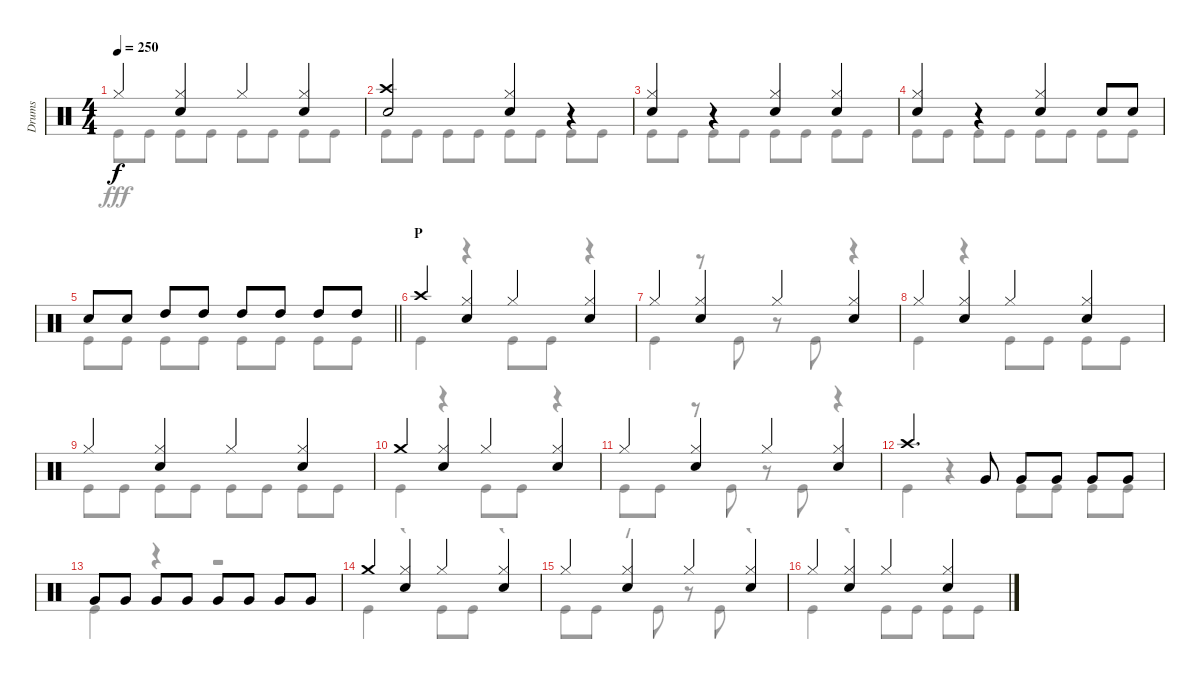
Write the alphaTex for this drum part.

\track ("Drums" "Drums") {instrument percussion}
\staff {score}
\articulation defaults
\voice
\ts (4 4)
\tempo 250
\clef neutral
\ks c "Hi-Hat (closed)".4{dy f}
("Hi-Hat (closed)" "Snare (hit) 2").4 "Hi-Hat (closed)".4 ("Hi-Hat (closed)" "Snare (hit) 2").4 |
("Crash high (hit)" "Snare (hit) 2").2 ("Hi-Hat (closed)" "Snare (hit) 2").4 r.4 |
("Hi-Hat (closed)" "Snare (hit) 2").4 r.4 ("Hi-Hat (closed)" "Snare (hit) 2").4 ("Hi-Hat (closed)" "Snare (hit) 2").4 |
("Hi-Hat (closed)" "Snare (hit) 2").4 r.4 ("Hi-Hat (closed)" "Snare (hit) 2").4 "Snare (hit) 2".8 "Snare (hit) 2".8 |
\barLineRight lightlight "Snare (hit) 2".8 "Snare (hit) 2".8 "High Tom (hit)".8 "High Tom (hit)".8 "High Tom (hit)".8 "High Tom (hit)".8 "High Tom (hit)".8 "High Tom (hit)".8
|
\section ("" "P")
"Crash high (hit)".4 ("Hi-Hat (closed)" "Snare (hit) 2").4 "Hi-Hat (closed)".4 ("Hi-Hat (closed)" "Snare (hit) 2").4 |
"Hi-Hat (closed)".4 ("Hi-Hat (closed)" "Snare (hit) 2").4 "Hi-Hat (closed)".4 ("Hi-Hat (closed)" "Snare (hit) 2").4 |
"Hi-Hat (closed)".4 ("Hi-Hat (closed)" "Snare (hit) 2").4 "Hi-Hat (closed)".4 ("Hi-Hat (closed)" "Snare (hit) 2").4 |
"Hi-Hat (closed)".4 ("Hi-Hat (closed)" "Snare (hit) 2").4 "Hi-Hat (closed)".4 ("Hi-Hat (closed)" "Snare (hit) 2").4 |
"Crash medium (hit)".4 ("Hi-Hat (closed)" "Snare (hit) 2").4 "Hi-Hat (closed)".4 ("Hi-Hat (closed)" "Snare (hit) 2").4 |
"Hi-Hat (closed)".4 ("Hi-Hat (closed)" "Snare (hit) 2").4 "Hi-Hat (closed)".4 ("Hi-Hat (closed)" "Snare (hit) 2").4 |
"Crash high (hit)".4{d} "Very Low Tom (hit)".8 "Very Low Tom (hit)".8 "Very Low Tom (hit)".8 "Very Low Tom (hit)".8 "Very Low Tom (hit)".8 |
"Very Low Tom (hit)".8 "Very Low Tom (hit)".8 "Very Low Tom (hit)".8 "Very Low Tom (hit)".8 "Very Low Tom (hit)".8 "Very Low Tom (hit)".8 "Very Low Tom (hit)".8 "Very Low Tom (hit)".8 |
"Crash medium (hit)".4 ("Hi-Hat (closed)" "Snare (hit) 2").4 "Hi-Hat (closed)".4 ("Hi-Hat (closed)" "Snare (hit) 2").4 |
"Hi-Hat (closed)".4 ("Hi-Hat (closed)" "Snare (hit) 2").4 "Hi-Hat (closed)".4 ("Hi-Hat (closed)" "Snare (hit) 2").4 |
"Hi-Hat (closed)".4 ("Hi-Hat (closed)" "Snare (hit) 2").4 "Hi-Hat (closed)".4 ("Hi-Hat (closed)" "Snare (hit) 2").4
\voice
\clef neutral
\ottava regular
\simile none
\ks c "Kick (hit)".8{dy fff} "Kick (hit)".8 "Kick (hit)".8 "Kick (hit)".8 "Kick (hit)".8 "Kick (hit)".8 "Kick (hit)".8 "Kick (hit)".8
|
"Kick (hit)".8 "Kick (hit)".8 "Kick (hit)".8 "Kick (hit)".8 "Kick (hit)".8 "Kick (hit)".8 "Kick (hit)".8 "Kick (hit)".8 |
"Kick (hit)".8 "Kick (hit)".8 "Kick (hit)".8 "Kick (hit)".8 "Kick (hit)".8 "Kick (hit)".8 "Kick (hit)".8 "Kick (hit)".8 |
"Kick (hit)".8 "Kick (hit)".8 "Kick (hit)".8 "Kick (hit)".8 "Kick (hit)".8 "Kick (hit)".8 "Kick (hit)".8 "Kick (hit)".8 |
\barLineRight lightlight "Kick (hit)".8 "Kick (hit)".8 "Kick (hit)".8 "Kick (hit)".8 "Kick (hit)".8 "Kick (hit)".8 "Kick (hit)".8 "Kick (hit)".8
|
"Kick (hit)".4 r.4 "Kick (hit)".8 "Kick (hit)".8 r.4 |
"Kick (hit)".4 r.8 "Kick (hit)".8 r.8 "Kick (hit)".8 r.4 |
"Kick (hit)".4 r.4 "Kick (hit)".8 "Kick (hit)".8 "Kick (hit)".8 "Kick (hit)".8 |
"Kick (hit)".8 "Kick (hit)".8 "Kick (hit)".8 "Kick (hit)".8 "Kick (hit)".8 "Kick (hit)".8 "Kick (hit)".8 "Kick (hit)".8 |
"Kick (hit)".4 r.4 "Kick (hit)".8 "Kick (hit)".8 r.4 |
"Kick (hit)".8 "Kick (hit)".8 r.8 "Kick (hit)".8 r.8 "Kick (hit)".8 r.4 |
"Kick (hit)".4 r.4 "Kick (hit)".8 "Kick (hit)".8 "Kick (hit)".8 "Kick (hit)".8 |
"Kick (hit)".4 r.4 r.2 |
"Kick (hit)".4 r.4 "Kick (hit)".8 "Kick (hit)".8 r.4 |
"Kick (hit)".8 "Kick (hit)".8 r.8 "Kick (hit)".8 r.8 "Kick (hit)".8 r.4 |
"Kick (hit)".4 r.4 "Kick (hit)".8 "Kick (hit)".8 "Kick (hit)".8 "Kick (hit)".8
